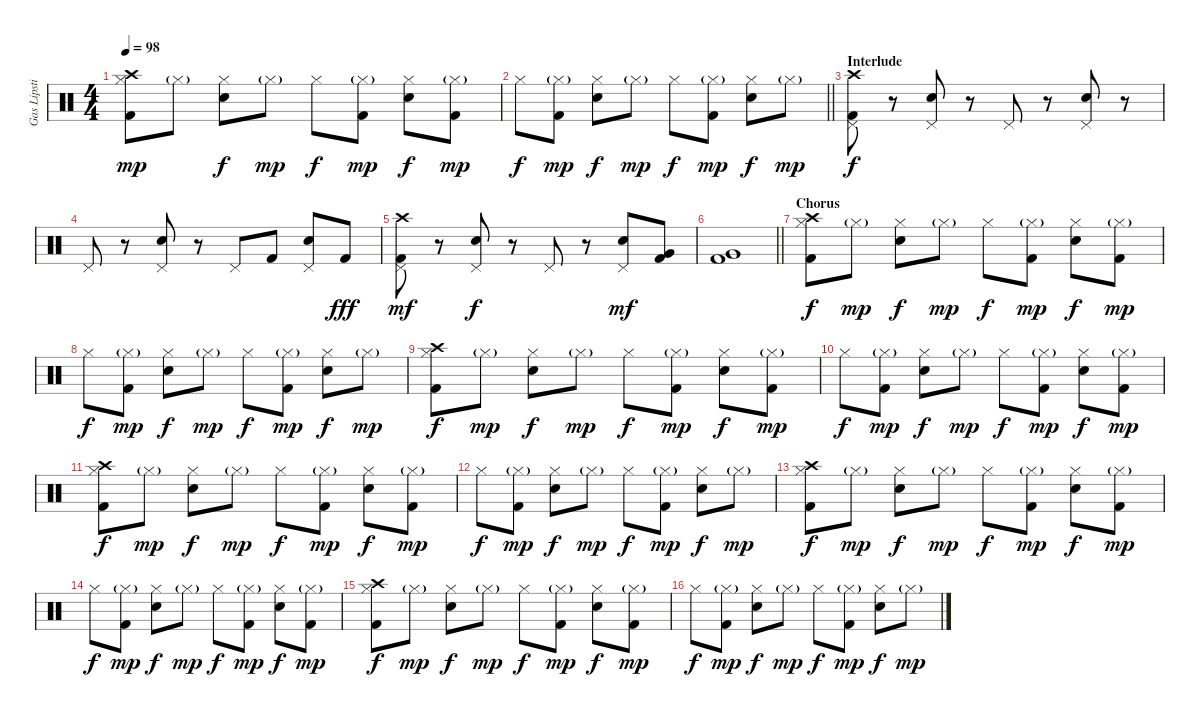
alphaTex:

\track ("Gas Lipstick (Drums)" "Gas Lipsti") {instrument percussion}
\staff {score}
\articulation defaults
\ts (4 4)
\tempo 98
\clef neutral
\ks c
("Crash high (hit)" "Hi-Hat (closed)" "Kick (hit) 2").8{dy mp} "Hi-Hat (closed)"{g}.8 ("Hi-Hat (closed)" "Snare (hit) 2").8{dy f} "Hi-Hat (closed)"{g}.8{dy mp} "Hi-Hat (closed)".8{dy f} ("Hi-Hat (closed)"{g} "Kick (hit) 2").8{dy mp} ("Hi-Hat (closed)" "Snare (hit) 2").8{dy f} ("Hi-Hat (closed)"{g} "Kick (hit) 2").8{dy mp} |
\barLineRight lightlight "Hi-Hat (closed)".8{dy f}
("Hi-Hat (closed)"{g} "Kick (hit) 2").8{dy mp} ("Hi-Hat (closed)" "Snare (hit) 2").8{dy f} "Hi-Hat (closed)"{g}.8{dy mp} "Hi-Hat (closed)".8{dy f} ("Hi-Hat (closed)"{g} "Kick (hit) 2").8{dy mp} ("Hi-Hat (closed)" "Snare (hit) 2").8{dy f} "Hi-Hat (closed)"{g}.8{dy mp} |
\section ("" "Interlude")
("Crash high (hit)" "Pedal Hi-Hat (hit)" "Kick (hit) 2").8{dy f} r.8 ("Pedal Hi-Hat (hit)" "Snare (hit) 2").8 r.8 "Pedal Hi-Hat (hit)".8 r.8 ("Pedal Hi-Hat (hit)" "Snare (hit) 2").8 r.8 |
"Pedal Hi-Hat (hit)".8 r.8 ("Pedal Hi-Hat (hit)" "Snare (hit) 2").8 r.8 "Pedal Hi-Hat (hit)".8 "Kick (hit) 2".8 ("Pedal Hi-Hat (hit)" "Snare (hit) 2").8 "Kick (hit) 2".8{dy fff} |
("Crash high (hit)" "Pedal Hi-Hat (hit)" "Kick (hit) 2").8{dy mf} r.8 ("Pedal Hi-Hat (hit)" "Snare (hit) 2").8{dy f} r.8 "Pedal Hi-Hat (hit)".8 r.8 ("Pedal Hi-Hat (hit)" "Snare (hit) 2").8{dy mf} ("Very Low Tom (hit)" "Kick (hit) 2").8 |
\barLineRight lightlight
("Very Low Tom (hit)" "Kick (hit) 2").1 |
\section ("" "Chorus")
("Crash high (hit)" "Hi-Hat (closed)" "Kick (hit) 2").8{dy f} "Hi-Hat (closed)"{g}.8{dy mp} ("Hi-Hat (closed)" "Snare (hit) 2").8{dy f} "Hi-Hat (closed)"{g}.8{dy mp} "Hi-Hat (closed)".8{dy f} ("Hi-Hat (closed)"{g} "Kick (hit) 2").8{dy mp} ("Hi-Hat (closed)" "Snare (hit) 2").8{dy f} ("Hi-Hat (closed)"{g} "Kick (hit) 2").8{dy mp} |
"Hi-Hat (closed)".8{dy f} ("Hi-Hat (closed)"{g} "Kick (hit) 2").8{dy mp} ("Hi-Hat (closed)" "Snare (hit) 2").8{dy f} "Hi-Hat (closed)"{g}.8{dy mp} "Hi-Hat (closed)".8{dy f} ("Hi-Hat (closed)"{g} "Kick (hit) 2").8{dy mp} ("Hi-Hat (closed)" "Snare (hit) 2").8{dy f} "Hi-Hat (closed)"{g}.8{dy mp} |
("Crash high (hit)" "Hi-Hat (closed)" "Kick (hit) 2").8{dy f} "Hi-Hat (closed)"{g}.8{dy mp} ("Hi-Hat (closed)" "Snare (hit) 2").8{dy f} "Hi-Hat (closed)"{g}.8{dy mp} "Hi-Hat (closed)".8{dy f} ("Hi-Hat (closed)"{g} "Kick (hit) 2").8{dy mp} ("Hi-Hat (closed)" "Snare (hit) 2").8{dy f} ("Hi-Hat (closed)"{g} "Kick (hit) 2").8{dy mp} |
"Hi-Hat (closed)".8{dy f} ("Hi-Hat (closed)"{g} "Kick (hit) 2").8{dy mp} ("Hi-Hat (closed)" "Snare (hit) 2").8{dy f} "Hi-Hat (closed)"{g}.8{dy mp} "Hi-Hat (closed)".8{dy f} ("Hi-Hat (closed)"{g} "Kick (hit) 2").8{dy mp} ("Hi-Hat (closed)" "Snare (hit) 2").8{dy f} ("Hi-Hat (closed)"{g} "Kick (hit) 2").8{dy mp} |
("Crash high (hit)" "Hi-Hat (closed)" "Kick (hit) 2").8{dy f} "Hi-Hat (closed)"{g}.8{dy mp} ("Hi-Hat (closed)" "Snare (hit) 2").8{dy f} "Hi-Hat (closed)"{g}.8{dy mp} "Hi-Hat (closed)".8{dy f} ("Hi-Hat (closed)"{g} "Kick (hit) 2").8{dy mp} ("Hi-Hat (closed)" "Snare (hit) 2").8{dy f} ("Hi-Hat (closed)"{g} "Kick (hit) 2").8{dy mp} |
"Hi-Hat (closed)".8{dy f} ("Hi-Hat (closed)"{g} "Kick (hit) 2").8{dy mp} ("Hi-Hat (closed)" "Snare (hit) 2").8{dy f} "Hi-Hat (closed)"{g}.8{dy mp} "Hi-Hat (closed)".8{dy f} ("Hi-Hat (closed)"{g} "Kick (hit) 2").8{dy mp} ("Hi-Hat (closed)" "Snare (hit) 2").8{dy f} "Hi-Hat (closed)"{g}.8{dy mp} |
("Crash high (hit)" "Hi-Hat (closed)" "Kick (hit) 2").8{dy f} "Hi-Hat (closed)"{g}.8{dy mp} ("Hi-Hat (closed)" "Snare (hit) 2").8{dy f} "Hi-Hat (closed)"{g}.8{dy mp} "Hi-Hat (closed)".8{dy f} ("Hi-Hat (closed)"{g} "Kick (hit) 2").8{dy mp} ("Hi-Hat (closed)" "Snare (hit) 2").8{dy f} ("Hi-Hat (closed)"{g} "Kick (hit) 2").8{dy mp} |
"Hi-Hat (closed)".8{dy f} ("Hi-Hat (closed)"{g} "Kick (hit) 2").8{dy mp} ("Hi-Hat (closed)" "Snare (hit) 2").8{dy f} "Hi-Hat (closed)"{g}.8{dy mp} "Hi-Hat (closed)".8{dy f} ("Hi-Hat (closed)"{g} "Kick (hit) 2").8{dy mp} ("Hi-Hat (closed)" "Snare (hit) 2").8{dy f} ("Hi-Hat (closed)"{g} "Kick (hit) 2").8{dy mp} |
("Crash high (hit)" "Hi-Hat (closed)" "Kick (hit) 2").8{dy f} "Hi-Hat (closed)"{g}.8{dy mp} ("Hi-Hat (closed)" "Snare (hit) 2").8{dy f} "Hi-Hat (closed)"{g}.8{dy mp} "Hi-Hat (closed)".8{dy f} ("Hi-Hat (closed)"{g} "Kick (hit) 2").8{dy mp} ("Hi-Hat (closed)" "Snare (hit) 2").8{dy f} ("Hi-Hat (closed)"{g} "Kick (hit) 2").8{dy mp} |
"Hi-Hat (closed)".8{dy f} ("Hi-Hat (closed)"{g} "Kick (hit) 2").8{dy mp} ("Hi-Hat (closed)" "Snare (hit) 2").8{dy f} "Hi-Hat (closed)"{g}.8{dy mp} "Hi-Hat (closed)".8{dy f} ("Hi-Hat (closed)"{g} "Kick (hit) 2").8{dy mp} ("Hi-Hat (closed)" "Snare (hit) 2").8{dy f} "Hi-Hat (closed)"{g}.8{dy mp}
